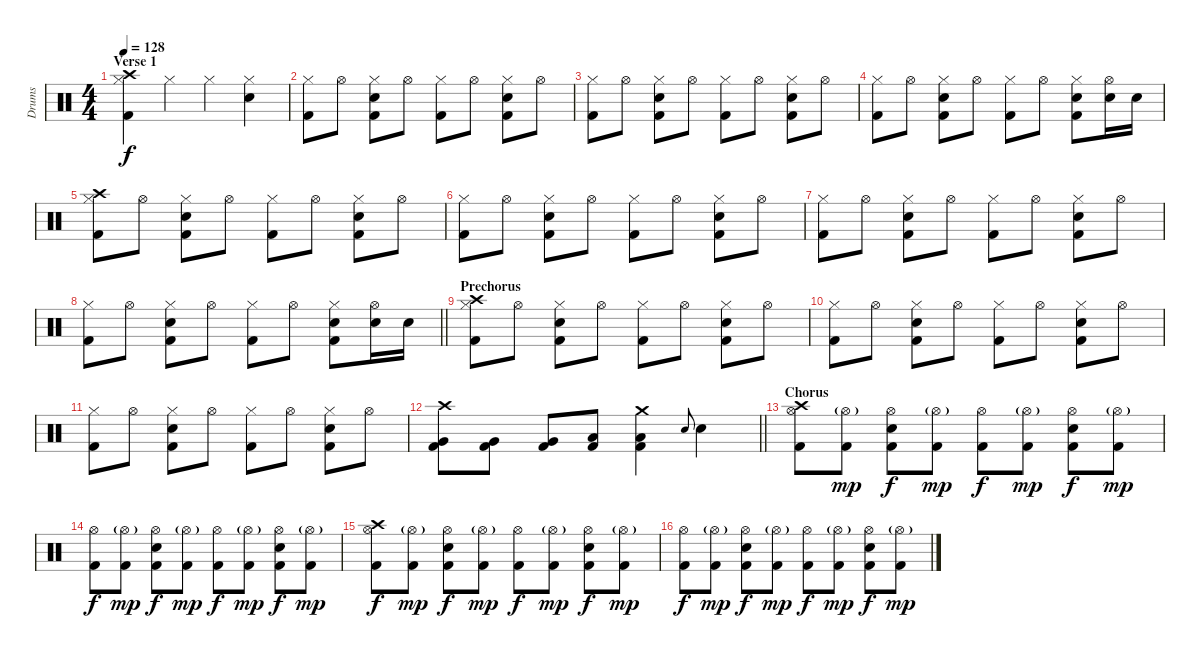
\track ("Drums" "Drums") {instrument percussion}
\staff {score}
\articulation defaults
\ts (4 4)
\section ("" "Verse 1")
\tempo 128
\clef neutral
\ks c
("Crash high (hit)" "Hi-Hat (closed)" "Kick (hit) 2").4{dy f} "Hi-Hat (closed)".4 "Hi-Hat (closed)".4 ("Hi-Hat (closed)" "Snare (hit) 2").4 |
("Hi-Hat (closed)" "Kick (hit) 2").8 "Hi-Hat (open)".8 ("Hi-Hat (closed)" "Snare (hit) 2" "Kick (hit) 2").8 "Hi-Hat (open)".8 ("Hi-Hat (closed)" "Kick (hit) 2").8 "Hi-Hat (open)".8 ("Hi-Hat (closed)" "Snare (hit) 2" "Kick (hit) 2").8 "Hi-Hat (open)".8 |
("Hi-Hat (closed)" "Kick (hit) 2").8 "Hi-Hat (open)".8 ("Hi-Hat (closed)" "Snare (hit) 2" "Kick (hit) 2").8 "Hi-Hat (open)".8 ("Hi-Hat (closed)" "Kick (hit) 2").8 "Hi-Hat (open)".8 ("Hi-Hat (closed)" "Snare (hit) 2" "Kick (hit) 2").8 "Hi-Hat (open)".8 |
("Hi-Hat (closed)" "Kick (hit) 2").8 "Hi-Hat (open)".8 ("Hi-Hat (closed)" "Snare (hit) 2" "Kick (hit) 2").8 "Hi-Hat (open)".8 ("Hi-Hat (closed)" "Kick (hit) 2").8 "Hi-Hat (open)".8 ("Hi-Hat (closed)" "Snare (hit) 2" "Kick (hit) 2").8 ("Hi-Hat (open)" "Snare (hit) 2").16 "Snare (hit) 2".16 |
("Crash high (hit)" "Hi-Hat (closed)" "Kick (hit) 2").8 "Hi-Hat (open)".8 ("Hi-Hat (closed)" "Snare (hit) 2" "Kick (hit) 2").8 "Hi-Hat (open)".8 ("Hi-Hat (closed)" "Kick (hit) 2").8 "Hi-Hat (open)".8 ("Hi-Hat (closed)" "Snare (hit) 2" "Kick (hit) 2").8 "Hi-Hat (open)".8 |
("Hi-Hat (closed)" "Kick (hit) 2").8 "Hi-Hat (open)".8 ("Hi-Hat (closed)" "Snare (hit) 2" "Kick (hit) 2").8 "Hi-Hat (open)".8 ("Hi-Hat (closed)" "Kick (hit) 2").8 "Hi-Hat (open)".8 ("Hi-Hat (closed)" "Snare (hit) 2" "Kick (hit) 2").8 "Hi-Hat (open)".8 |
("Hi-Hat (closed)" "Kick (hit) 2").8 "Hi-Hat (open)".8 ("Hi-Hat (closed)" "Snare (hit) 2" "Kick (hit) 2").8 "Hi-Hat (open)".8 ("Hi-Hat (closed)" "Kick (hit) 2").8 "Hi-Hat (open)".8 ("Hi-Hat (closed)" "Snare (hit) 2" "Kick (hit) 2").8 "Hi-Hat (open)".8 |
\barLineRight lightlight
("Hi-Hat (closed)" "Kick (hit) 2").8 "Hi-Hat (open)".8 ("Hi-Hat (closed)" "Snare (hit) 2" "Kick (hit) 2").8 "Hi-Hat (open)".8 ("Hi-Hat (closed)" "Kick (hit) 2").8 "Hi-Hat (open)".8 ("Hi-Hat (closed)" "Snare (hit) 2" "Kick (hit) 2").8 ("Hi-Hat (open)" "Snare (hit) 2").16 "Snare (hit) 2".16 |
\section ("" "Prechorus")
("Crash high (hit)" "Hi-Hat (closed)" "Kick (hit) 2").8 "Hi-Hat (open)".8 ("Hi-Hat (closed)" "Snare (hit) 2" "Kick (hit) 2").8 "Hi-Hat (open)".8 ("Hi-Hat (closed)" "Kick (hit) 2").8 "Hi-Hat (open)".8 ("Hi-Hat (closed)" "Snare (hit) 2" "Kick (hit) 2").8 "Hi-Hat (open)".8 |
("Hi-Hat (closed)" "Kick (hit) 2").8 "Hi-Hat (open)".8 ("Hi-Hat (closed)" "Snare (hit) 2" "Kick (hit) 2").8 "Hi-Hat (open)".8 ("Hi-Hat (closed)" "Kick (hit) 2").8 "Hi-Hat (open)".8 ("Hi-Hat (closed)" "Snare (hit) 2" "Kick (hit) 2").8 "Hi-Hat (open)".8 |
("Hi-Hat (closed)" "Kick (hit) 2").8 "Hi-Hat (open)".8 ("Hi-Hat (closed)" "Snare (hit) 2" "Kick (hit) 2").8 "Hi-Hat (open)".8 ("Hi-Hat (closed)" "Kick (hit) 2").8 "Hi-Hat (open)".8 ("Hi-Hat (closed)" "Snare (hit) 2" "Kick (hit) 2").8 "Hi-Hat (open)".8 |
\barLineRight lightlight
("Crash high (hit)" "Very Low Tom (hit)" "Kick (hit) 2").8 ("Very Low Tom (hit)" "Kick (hit) 2").8 ("Very Low Tom (hit)" "Kick (hit) 2").8 ("Low Floor Tom (hit)" "Kick (hit) 2").8 ("Crash medium (hit)" "Low Floor Tom (hit)" "Kick (hit) 2").4 "Snare (hit) 2".8{gr onbeat} "Snare (hit) 2".4 |
\section ("" "Chorus")
("Crash high (hit)" "Hi-Hat (open)" "Kick (hit) 2").8 ("Hi-Hat (open)"{g} "Kick (hit) 2").8{dy mp} ("Hi-Hat (open)" "Snare (hit) 2" "Kick (hit) 2").8{dy f} ("Hi-Hat (open)"{g} "Kick (hit) 2").8{dy mp} ("Hi-Hat (open)" "Kick (hit) 2").8{dy f} ("Hi-Hat (open)"{g} "Kick (hit) 2").8{dy mp} ("Hi-Hat (open)" "Snare (hit) 2" "Kick (hit) 2").8{dy f} ("Hi-Hat (open)"{g} "Kick (hit) 2").8{dy mp} |
("Hi-Hat (open)" "Kick (hit) 2").8{dy f} ("Hi-Hat (open)"{g} "Kick (hit) 2").8{dy mp} ("Hi-Hat (open)" "Snare (hit) 2" "Kick (hit) 2").8{dy f} ("Hi-Hat (open)"{g} "Kick (hit) 2").8{dy mp} ("Hi-Hat (open)" "Kick (hit) 2").8{dy f} ("Hi-Hat (open)"{g} "Kick (hit) 2").8{dy mp} ("Hi-Hat (open)" "Snare (hit) 2" "Kick (hit) 2").8{dy f} ("Hi-Hat (open)"{g} "Kick (hit) 2").8{dy mp} |
("Crash high (hit)" "Hi-Hat (open)" "Kick (hit) 2").8{dy f} ("Hi-Hat (open)"{g} "Kick (hit) 2").8{dy mp} ("Hi-Hat (open)" "Snare (hit) 2" "Kick (hit) 2").8{dy f} ("Hi-Hat (open)"{g} "Kick (hit) 2").8{dy mp} ("Hi-Hat (open)" "Kick (hit) 2").8{dy f} ("Hi-Hat (open)"{g} "Kick (hit) 2").8{dy mp} ("Hi-Hat (open)" "Snare (hit) 2" "Kick (hit) 2").8{dy f} ("Hi-Hat (open)"{g} "Kick (hit) 2").8{dy mp} |
("Hi-Hat (open)" "Kick (hit) 2").8{dy f} ("Hi-Hat (open)"{g} "Kick (hit) 2").8{dy mp} ("Hi-Hat (open)" "Snare (hit) 2" "Kick (hit) 2").8{dy f} ("Hi-Hat (open)"{g} "Kick (hit) 2").8{dy mp} ("Hi-Hat (open)" "Kick (hit) 2").8{dy f} ("Hi-Hat (open)"{g} "Kick (hit) 2").8{dy mp} ("Hi-Hat (open)" "Snare (hit) 2" "Kick (hit) 2").8{dy f} ("Hi-Hat (open)"{g} "Kick (hit) 2").8{dy mp}
